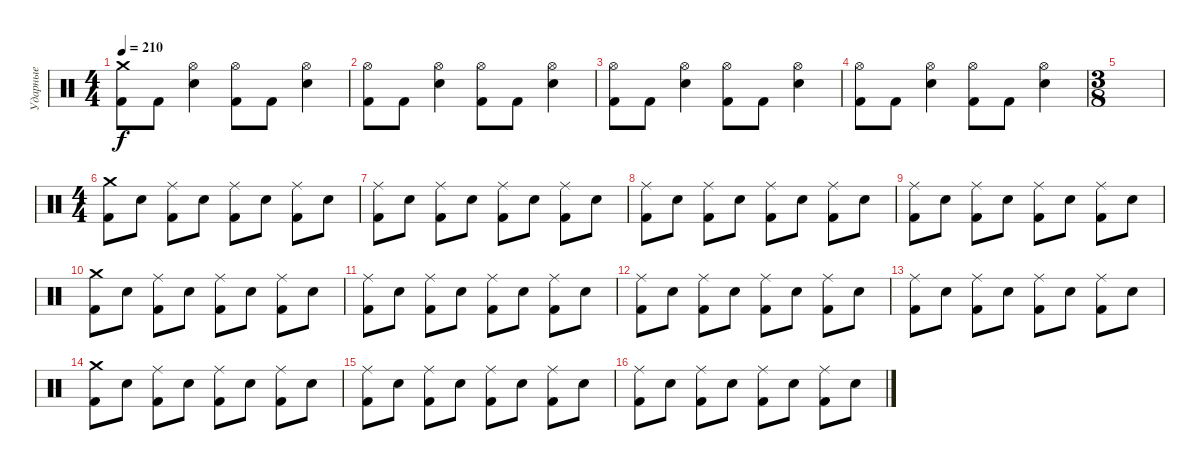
\track ("Ударные" "Ударные") {instrument percussion}
\staff {score}
\articulation defaults
\ts (4 4)
\tempo 210
\clef neutral
\ks c
("Crash medium (hit)" "Kick (hit) 2").8{dy f} "Kick (hit) 2".8 ("Hi-Hat (open)" "Snare (hit) 2").4 ("Hi-Hat (open)" "Kick (hit) 2").8 "Kick (hit) 2".8 ("Hi-Hat (open)" "Snare (hit) 2").4 |
("Hi-Hat (open)" "Kick (hit) 2").8 "Kick (hit) 2".8 ("Hi-Hat (open)" "Snare (hit) 2").4 ("Hi-Hat (open)" "Kick (hit) 2").8 "Kick (hit) 2".8 ("Hi-Hat (open)" "Snare (hit) 2").4 |
("Hi-Hat (open)" "Kick (hit) 2").8 "Kick (hit) 2".8 ("Hi-Hat (open)" "Snare (hit) 2").4 ("Hi-Hat (open)" "Kick (hit) 2").8 "Kick (hit) 2".8 ("Hi-Hat (open)" "Snare (hit) 2").4 |
("Hi-Hat (open)" "Kick (hit) 2").8 "Kick (hit) 2".8 ("Hi-Hat (open)" "Snare (hit) 2").4 ("Hi-Hat (open)" "Kick (hit) 2").8 "Kick (hit) 2".8 ("Hi-Hat (open)" "Snare (hit) 2").4 |
\ts (3 8)
|
\ts (4 4)
("Crash medium (hit)" "Kick (hit) 2").8 "Snare (hit) 2".8 ("Ride (middle)" "Kick (hit) 2").8 "Snare (hit) 2".8 ("Ride (middle)" "Kick (hit) 2").8 "Snare (hit) 2".8 ("Ride (middle)" "Kick (hit) 2").8 "Snare (hit) 2".8 |
("Ride (middle)" "Kick (hit) 2").8 "Snare (hit) 2".8 ("Ride (middle)" "Kick (hit) 2").8 "Snare (hit) 2".8 ("Ride (middle)" "Kick (hit) 2").8 "Snare (hit) 2".8 ("Ride (middle)" "Kick (hit) 2").8 "Snare (hit) 2".8 |
("Ride (middle)" "Kick (hit) 2").8 "Snare (hit) 2".8 ("Ride (middle)" "Kick (hit) 2").8 "Snare (hit) 2".8 ("Ride (middle)" "Kick (hit) 2").8 "Snare (hit) 2".8 ("Ride (middle)" "Kick (hit) 2").8 "Snare (hit) 2".8 |
("Ride (middle)" "Kick (hit) 2").8 "Snare (hit) 2".8 ("Ride (middle)" "Kick (hit) 2").8 "Snare (hit) 2".8 ("Ride (middle)" "Kick (hit) 2").8 "Snare (hit) 2".8 ("Ride (middle)" "Kick (hit) 2").8 "Snare (hit) 2".8 |
("Crash medium (hit)" "Kick (hit) 2").8 "Snare (hit) 2".8 ("Ride (middle)" "Kick (hit) 2").8 "Snare (hit) 2".8 ("Ride (middle)" "Kick (hit) 2").8 "Snare (hit) 2".8 ("Ride (middle)" "Kick (hit) 2").8 "Snare (hit) 2".8 |
("Ride (middle)" "Kick (hit) 2").8 "Snare (hit) 2".8 ("Ride (middle)" "Kick (hit) 2").8 "Snare (hit) 2".8 ("Ride (middle)" "Kick (hit) 2").8 "Snare (hit) 2".8 ("Ride (middle)" "Kick (hit) 2").8 "Snare (hit) 2".8 |
("Ride (middle)" "Kick (hit) 2").8 "Snare (hit) 2".8 ("Ride (middle)" "Kick (hit) 2").8 "Snare (hit) 2".8 ("Ride (middle)" "Kick (hit) 2").8 "Snare (hit) 2".8 ("Ride (middle)" "Kick (hit) 2").8 "Snare (hit) 2".8 |
("Ride (middle)" "Kick (hit) 2").8 "Snare (hit) 2".8 ("Ride (middle)" "Kick (hit) 2").8 "Snare (hit) 2".8 ("Ride (middle)" "Kick (hit) 2").8 "Snare (hit) 2".8 ("Ride (middle)" "Kick (hit) 2").8 "Snare (hit) 2".8 |
("Crash medium (hit)" "Kick (hit) 2").8 "Snare (hit) 2".8 ("Ride (middle)" "Kick (hit) 2").8 "Snare (hit) 2".8 ("Ride (middle)" "Kick (hit) 2").8 "Snare (hit) 2".8 ("Ride (middle)" "Kick (hit) 2").8 "Snare (hit) 2".8 |
("Ride (middle)" "Kick (hit) 2").8 "Snare (hit) 2".8 ("Ride (middle)" "Kick (hit) 2").8 "Snare (hit) 2".8 ("Ride (middle)" "Kick (hit) 2").8 "Snare (hit) 2".8 ("Ride (middle)" "Kick (hit) 2").8 "Snare (hit) 2".8 |
("Ride (middle)" "Kick (hit) 2").8 "Snare (hit) 2".8 ("Ride (middle)" "Kick (hit) 2").8 "Snare (hit) 2".8 ("Ride (middle)" "Kick (hit) 2").8 "Snare (hit) 2".8 ("Ride (middle)" "Kick (hit) 2").8 "Snare (hit) 2".8
